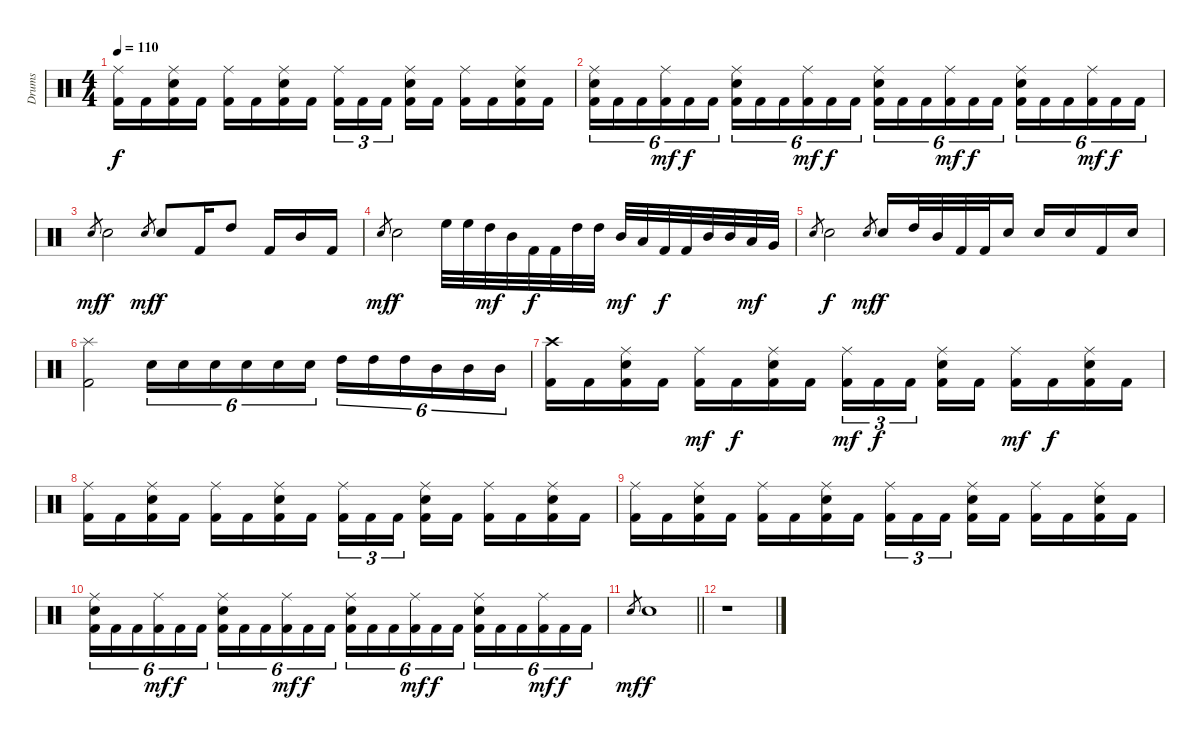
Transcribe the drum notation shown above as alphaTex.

\track ("Drums" "Drums") {instrument percussion}
\staff {score}
\articulation defaults
\ts (4 4)
\tempo 110
\clef neutral
\ks c
("Ride (middle)" "Kick (hit) 2").16{dy f} "Kick (hit) 2".16 ("Ride (middle)" "Electric Snare (hit)" "Kick (hit) 2").16 "Kick (hit) 2".16 ("Ride (middle)" "Kick (hit) 2").16 "Kick (hit) 2".16 ("Ride (middle)" "Electric Snare (hit)" "Kick (hit) 2").16 "Kick (hit) 2".16 ("Ride (middle)" "Kick (hit) 2").16{tu (3 2)} "Kick (hit) 2".16{tu (3 2)} "Kick (hit) 2".16{tu (3 2)} ("Ride (middle)" "Electric Snare (hit)" "Kick (hit) 2").16 "Kick (hit) 2".16 ("Ride (middle)" "Kick (hit) 2").16 "Kick (hit) 2".16 ("Ride (middle)" "Electric Snare (hit)" "Kick (hit) 2").16 "Kick (hit) 2".16 |
("Ride (middle)" "Electric Snare (hit)" "Kick (hit) 2").16{tu (6 4)} "Kick (hit) 2".16{tu (6 4)} "Kick (hit) 2".16{tu (6 4)} ("Ride (middle)" "Kick (hit) 2").16{tu (6 4) dy mf} "Kick (hit) 2".16{tu (6 4) dy f} "Kick (hit) 2".16{tu (6 4)} ("Ride (middle)" "Electric Snare (hit)" "Kick (hit) 2").16{tu (6 4)} "Kick (hit) 2".16{tu (6 4)} "Kick (hit) 2".16{tu (6 4)} ("Ride (middle)" "Kick (hit) 2").16{tu (6 4) dy mf} "Kick (hit) 2".16{tu (6 4) dy f} "Kick (hit) 2".16{tu (6 4)} ("Ride (middle)" "Electric Snare (hit)" "Kick (hit) 2").16{tu (6 4)} "Kick (hit) 2".16{tu (6 4)} "Kick (hit) 2".16{tu (6 4)} ("Ride (middle)" "Kick (hit) 2").16{tu (6 4) dy mf} "Kick (hit) 2".16{tu (6 4) dy f} "Kick (hit) 2".16{tu (6 4)} ("Ride (middle)" "Electric Snare (hit)" "Kick (hit) 2").16{tu (6 4)} "Kick (hit) 2".16{tu (6 4)} "Kick (hit) 2".16{tu (6 4)} ("Ride (middle)" "Kick (hit) 2").16{tu (6 4) dy mf} "Kick (hit) 2".16{tu (6 4) dy f} "Kick (hit) 2".16{tu (6 4)} |
"Electric Snare (hit)".8{gr dy mf} "Electric Snare (hit)".2{dy f} "Electric Snare (hit)".8{gr dy mf} "Electric Snare (hit)".8{dy f} "Kick (hit) 2".16 "High Tom (hit)".8 "Kick (hit) 2".16 "Mid Tom (hit)".16 "Kick (hit) 2".16 |
"Electric Snare (hit)".8{gr dy mf} "Electric Snare (hit)".2{dy f} "High Floor Tom (hit)".32 "High Floor Tom (hit)".32 "High Tom (hit)".32{dy mf} "Mid Tom (hit)".32 "Kick (hit) 2".32{dy f} "Kick (hit) 2".32 "High Tom (hit)".32 "High Tom (hit)".32 "Mid Tom (hit)".32{dy mf} "Low Tom (hit)".32 "Kick (hit) 2".32{dy f} "Kick (hit) 2".32 "Mid Tom (hit)".32 "Mid Tom (hit)".32 "Low Tom (hit)".32{dy mf} "Very Low Tom (hit)".32 |
"Electric Snare (hit)".8{gr} "Electric Snare (hit)".2{dy f} "Electric Snare (hit)".8{gr dy mf} "Electric Snare (hit)".16{dy f} "High Tom (hit)".32 "Mid Tom (hit)".32 "Kick (hit) 2".32 "Kick (hit) 2".32 "Electric Snare (hit)".16 "Electric Snare (hit)".16 "Electric Snare (hit)".16 "Kick (hit) 2".16 "Electric Snare (hit)".16 |
("Splash (hit)" "Kick (hit) 2").2 "Electric Snare (hit)".16{tu (6 4)} "Electric Snare (hit)".16{tu (6 4)} "Electric Snare (hit)".16{tu (6 4)} "Electric Snare (hit)".16{tu (6 4)} "Electric Snare (hit)".16{tu (6 4)} "Electric Snare (hit)".16{tu (6 4)} "High Tom (hit)".16{tu (6 4)} "High Tom (hit)".16{tu (6 4)} "High Tom (hit)".16{tu (6 4)} "Mid Tom (hit)".16{tu (6 4)} "Mid Tom (hit)".16{tu (6 4)} "Mid Tom (hit)".16{tu (6 4)} |
("Crash high (hit)" "Kick (hit) 2").16 "Kick (hit) 2".16 ("Ride (middle)" "Electric Snare (hit)" "Kick (hit) 2").16 "Kick (hit) 2".16 ("Ride (middle)" "Kick (hit) 2").16{dy mf} "Kick (hit) 2".16{dy f} ("Ride (middle)" "Electric Snare (hit)" "Kick (hit) 2").16 "Kick (hit) 2".16 ("Ride (middle)" "Kick (hit) 2").16{tu (3 2) dy mf} "Kick (hit) 2".16{tu (3 2) dy f} "Kick (hit) 2".16{tu (3 2)} ("Ride (middle)" "Electric Snare (hit)" "Kick (hit) 2").16 "Kick (hit) 2".16 ("Ride (middle)" "Kick (hit) 2").16{dy mf} "Kick (hit) 2".16{dy f} ("Ride (middle)" "Electric Snare (hit)" "Kick (hit) 2").16 "Kick (hit) 2".16 |
("Ride (middle)" "Kick (hit) 2").16 "Kick (hit) 2".16 ("Ride (middle)" "Electric Snare (hit)" "Kick (hit) 2").16 "Kick (hit) 2".16 ("Ride (middle)" "Kick (hit) 2").16 "Kick (hit) 2".16 ("Ride (middle)" "Electric Snare (hit)" "Kick (hit) 2").16 "Kick (hit) 2".16 ("Ride (middle)" "Kick (hit) 2").16{tu (3 2)} "Kick (hit) 2".16{tu (3 2)} "Kick (hit) 2".16{tu (3 2)} ("Ride (middle)" "Electric Snare (hit)" "Kick (hit) 2").16 "Kick (hit) 2".16 ("Ride (middle)" "Kick (hit) 2").16 "Kick (hit) 2".16 ("Ride (middle)" "Electric Snare (hit)" "Kick (hit) 2").16 "Kick (hit) 2".16 |
("Ride (middle)" "Kick (hit) 2").16 "Kick (hit) 2".16 ("Ride (middle)" "Electric Snare (hit)" "Kick (hit) 2").16 "Kick (hit) 2".16 ("Ride (middle)" "Kick (hit) 2").16 "Kick (hit) 2".16 ("Ride (middle)" "Electric Snare (hit)" "Kick (hit) 2").16 "Kick (hit) 2".16 ("Ride (middle)" "Kick (hit) 2").16{tu (3 2)} "Kick (hit) 2".16{tu (3 2)} "Kick (hit) 2".16{tu (3 2)} ("Ride (middle)" "Electric Snare (hit)" "Kick (hit) 2").16 "Kick (hit) 2".16 ("Ride (middle)" "Kick (hit) 2").16 "Kick (hit) 2".16 ("Ride (middle)" "Electric Snare (hit)" "Kick (hit) 2").16 "Kick (hit) 2".16 |
("Ride (middle)" "Electric Snare (hit)" "Kick (hit) 2").16{tu (6 4)} "Kick (hit) 2".16{tu (6 4)} "Kick (hit) 2".16{tu (6 4)} ("Ride (middle)" "Kick (hit) 2").16{tu (6 4) dy mf} "Kick (hit) 2".16{tu (6 4) dy f} "Kick (hit) 2".16{tu (6 4)} ("Ride (middle)" "Electric Snare (hit)" "Kick (hit) 2").16{tu (6 4)} "Kick (hit) 2".16{tu (6 4)} "Kick (hit) 2".16{tu (6 4)} ("Ride (middle)" "Kick (hit) 2").16{tu (6 4) dy mf} "Kick (hit) 2".16{tu (6 4) dy f} "Kick (hit) 2".16{tu (6 4)} ("Ride (middle)" "Electric Snare (hit)" "Kick (hit) 2").16{tu (6 4)} "Kick (hit) 2".16{tu (6 4)} "Kick (hit) 2".16{tu (6 4)} ("Ride (middle)" "Kick (hit) 2").16{tu (6 4) dy mf} "Kick (hit) 2".16{tu (6 4) dy f} "Kick (hit) 2".16{tu (6 4)} ("Ride (middle)" "Electric Snare (hit)" "Kick (hit) 2").16{tu (6 4)} "Kick (hit) 2".16{tu (6 4)} "Kick (hit) 2".16{tu (6 4)} ("Ride (middle)" "Kick (hit) 2").16{tu (6 4) dy mf} "Kick (hit) 2".16{tu (6 4) dy f} "Kick (hit) 2".16{tu (6 4)} |
\barLineRight lightlight "Electric Snare (hit)".8{gr dy mf} "Electric Snare (hit)".1{dy f}
|
r.1
